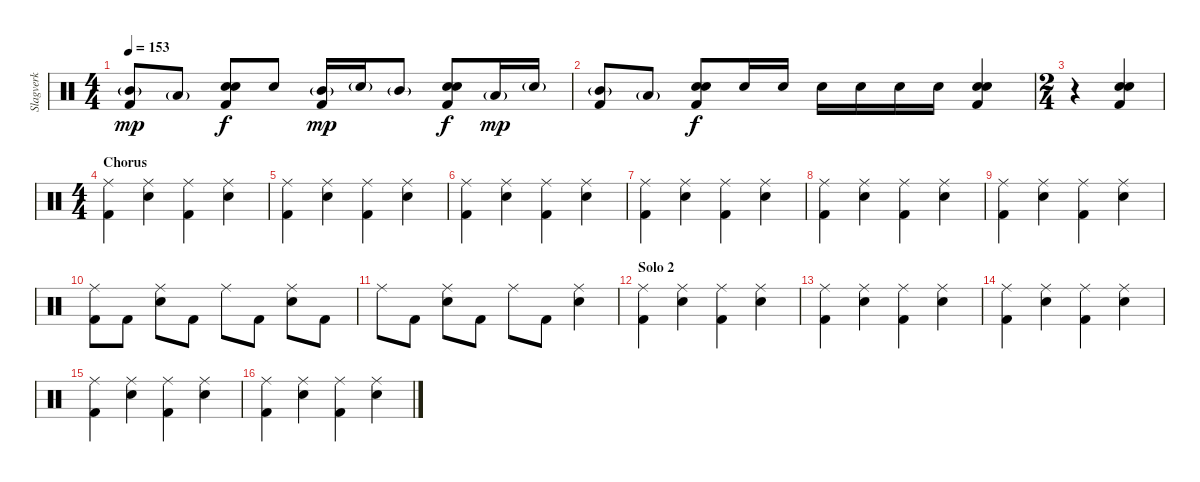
\track ("Slagverk" "Slagverk") {instrument percussion}
\staff {score}
\articulation defaults
\ts (4 4)
\tempo 153
\clef neutral
\ks c
("Mid Tom (hit)"{g} "Kick (hit) 2").8{dy mp} "Low Tom (hit)"{g}.8 ("Hand Clap (hit)" "Electric Snare (hit)" "Kick (hit) 2").8{dy f} "Electric Snare (hit)".8 ("Mid Tom (hit)"{g} "Kick (hit) 2").16{dy mp} "Electric Snare (hit)"{g}.16 "Mid Tom (hit)"{g}.8 ("Hand Clap (hit)" "Electric Snare (hit)" "Kick (hit) 2").8{dy f} "Low Tom (hit)"{g}.16{dy mp} "Electric Snare (hit)"{g}.16 |
("Mid Tom (hit)"{g} "Kick (hit) 2").8 "Low Tom (hit)"{g}.8 ("Hand Clap (hit)" "Electric Snare (hit)" "Kick (hit) 2").8{dy f} "Electric Snare (hit)".16 "Electric Snare (hit)".16 "Electric Snare (hit)".16 "Electric Snare (hit)".16 "Electric Snare (hit)".16 "Electric Snare (hit)".16 ("Hand Clap (hit)" "Electric Snare (hit)" "Kick (hit) 2").4 |
\ts (2 4)
r.4 ("Hand Clap (hit)" "Electric Snare (hit)" "Kick (hit) 2").4 |
\ts (4 4)
\section ("" "Chorus")
("Ride (middle)" "Kick (hit) 2").4 ("Ride (middle)" "Electric Snare (hit)").4 ("Ride (middle)" "Kick (hit) 2").4 ("Ride (middle)" "Electric Snare (hit)").4 |
("Ride (middle)" "Kick (hit) 2").4 ("Ride (middle)" "Electric Snare (hit)").4 ("Ride (middle)" "Kick (hit) 2").4 ("Ride (middle)" "Electric Snare (hit)").4 |
("Ride (middle)" "Kick (hit) 2").4 ("Ride (middle)" "Electric Snare (hit)").4 ("Ride (middle)" "Kick (hit) 2").4 ("Ride (middle)" "Electric Snare (hit)").4 |
("Ride (middle)" "Kick (hit) 2").4 ("Ride (middle)" "Electric Snare (hit)").4 ("Ride (middle)" "Kick (hit) 2").4 ("Ride (middle)" "Electric Snare (hit)").4 |
("Ride (middle)" "Kick (hit) 2").4 ("Ride (middle)" "Electric Snare (hit)").4 ("Ride (middle)" "Kick (hit) 2").4 ("Ride (middle)" "Electric Snare (hit)").4 |
("Ride (middle)" "Kick (hit) 2").4 ("Ride (middle)" "Electric Snare (hit)").4 ("Ride (middle)" "Kick (hit) 2").4 ("Ride (middle)" "Electric Snare (hit)").4 |
("Ride (middle)" "Kick (hit) 2").8 "Kick (hit) 2".8 ("Ride (middle)" "Electric Snare (hit)").8 "Kick (hit) 2".8 "Ride (middle)".8 "Kick (hit) 2".8 ("Ride (middle)" "Electric Snare (hit)").8 "Kick (hit) 2".8 |
"Ride (middle)".8 "Kick (hit) 2".8 ("Ride (middle)" "Electric Snare (hit)").8 "Kick (hit) 2".8 "Ride (middle)".8 "Kick (hit) 2".8 ("Ride (middle)" "Electric Snare (hit)").4 |
\section ("" "Solo 2")
("Ride (middle)" "Kick (hit) 2").4 ("Ride (middle)" "Electric Snare (hit)").4 ("Ride (middle)" "Kick (hit) 2").4 ("Ride (middle)" "Electric Snare (hit)").4 |
("Ride (middle)" "Kick (hit) 2").4 ("Ride (middle)" "Electric Snare (hit)").4 ("Ride (middle)" "Kick (hit) 2").4 ("Ride (middle)" "Electric Snare (hit)").4 |
("Ride (middle)" "Kick (hit) 2").4 ("Ride (middle)" "Electric Snare (hit)").4 ("Ride (middle)" "Kick (hit) 2").4 ("Ride (middle)" "Electric Snare (hit)").4 |
("Ride (middle)" "Kick (hit) 2").4 ("Ride (middle)" "Electric Snare (hit)").4 ("Ride (middle)" "Kick (hit) 2").4 ("Ride (middle)" "Electric Snare (hit)").4 |
("Ride (middle)" "Kick (hit) 2").4 ("Ride (middle)" "Electric Snare (hit)").4 ("Ride (middle)" "Kick (hit) 2").4 ("Ride (middle)" "Electric Snare (hit)").4
